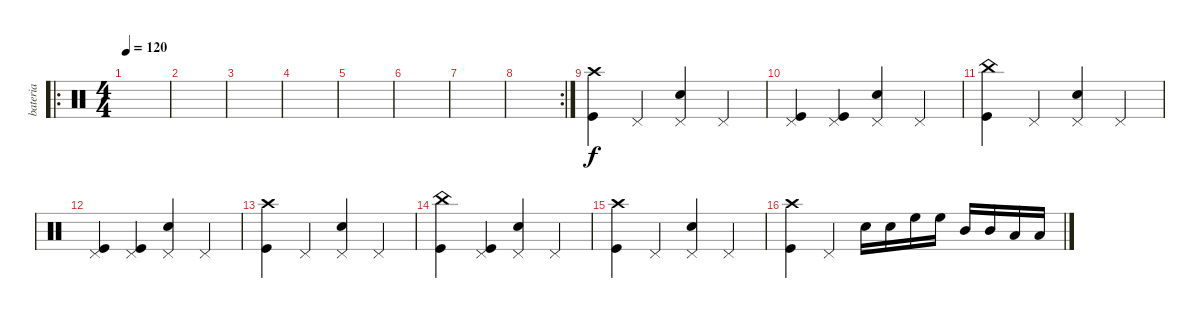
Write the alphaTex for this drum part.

\track ("bateria" "bateria") {instrument percussion}
\staff {score}
\articulation defaults
\ro
\ts (4 4)
\tempo 120
\clef neutral
\ks c
|
|
|
|
|
|
|
\rc 2
|
("Crash high (hit)" "Kick (hit)").4 "Pedal Hi-Hat (hit)".4 ("Pedal Hi-Hat (hit)" "Snare (hit) 2").4 "Pedal Hi-Hat (hit)".4 |
("Pedal Hi-Hat (hit)" "Kick (hit)").4 ("Pedal Hi-Hat (hit)" "Kick (hit)").4 ("Pedal Hi-Hat (hit)" "Snare (hit) 2").4 "Pedal Hi-Hat (hit)".4 |
("China (hit)" "Kick (hit)").4 "Pedal Hi-Hat (hit)".4 ("Pedal Hi-Hat (hit)" "Snare (hit) 2").4 "Pedal Hi-Hat (hit)".4 |
("Pedal Hi-Hat (hit)" "Kick (hit)").4 ("Pedal Hi-Hat (hit)" "Kick (hit)").4 ("Pedal Hi-Hat (hit)" "Snare (hit) 2").4 "Pedal Hi-Hat (hit)".4 |
("Crash high (hit)" "Kick (hit)").4 "Pedal Hi-Hat (hit)".4 ("Pedal Hi-Hat (hit)" "Snare (hit) 2").4 "Pedal Hi-Hat (hit)".4 |
("China (hit)" "Kick (hit)").4 ("Pedal Hi-Hat (hit)" "Kick (hit)").4 ("Pedal Hi-Hat (hit)" "Snare (hit) 2").4 "Pedal Hi-Hat (hit)".4 |
("Crash high (hit)" "Kick (hit)").4 "Pedal Hi-Hat (hit)".4 ("Pedal Hi-Hat (hit)" "Snare (hit) 2").4 "Pedal Hi-Hat (hit)".4 |
("Crash high (hit)" "Kick (hit)").4 "Pedal Hi-Hat (hit)".4 "Electric Snare (hit)".16 "Electric Snare (hit)".16 "High Floor Tom (hit)".16 "High Floor Tom (hit)".16 "Mid Tom (hit)".16 "Mid Tom (hit)".16 "Low Tom (hit)".16 "Low Tom (hit)".16
